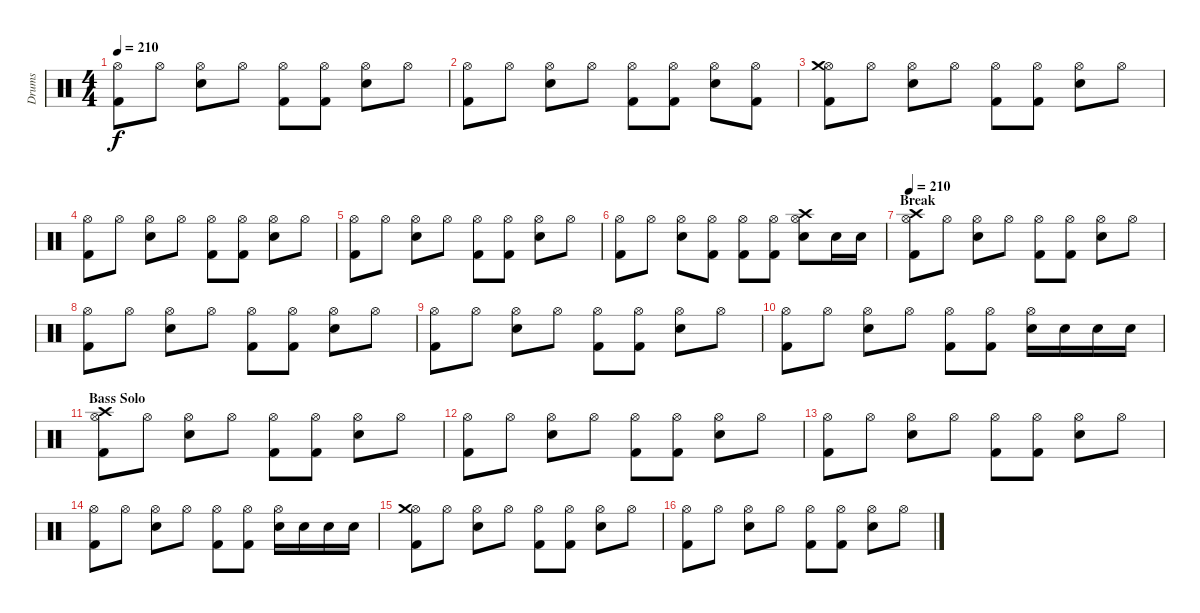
\track ("Drums" "Drums") {instrument percussion}
\staff {score}
\articulation defaults
\ts (4 4)
\tempo 210
\clef neutral
\ks c
("Hi-Hat (open)" "Kick (hit) 2").8{dy f} "Hi-Hat (open)".8 ("Hi-Hat (open)" "Electric Snare (hit)").8 "Hi-Hat (open)".8 ("Hi-Hat (open)" "Kick (hit) 2").8 ("Hi-Hat (open)" "Kick (hit) 2").8 ("Hi-Hat (open)" "Electric Snare (hit)").8 "Hi-Hat (open)".8 |
("Hi-Hat (open)" "Kick (hit) 2").8 "Hi-Hat (open)".8 ("Hi-Hat (open)" "Electric Snare (hit)").8 "Hi-Hat (open)".8 ("Hi-Hat (open)" "Kick (hit) 2").8 ("Hi-Hat (open)" "Kick (hit) 2").8 ("Hi-Hat (open)" "Electric Snare (hit)").8 ("Hi-Hat (open)" "Kick (hit) 2").8 |
("Hi-Hat (open)" "Crash medium (hit)" "Kick (hit) 2").8 "Hi-Hat (open)".8 ("Hi-Hat (open)" "Electric Snare (hit)").8 "Hi-Hat (open)".8 ("Hi-Hat (open)" "Kick (hit) 2").8 ("Hi-Hat (open)" "Kick (hit) 2").8 ("Hi-Hat (open)" "Electric Snare (hit)").8 "Hi-Hat (open)".8 |
("Hi-Hat (open)" "Kick (hit) 2").8 "Hi-Hat (open)".8 ("Hi-Hat (open)" "Electric Snare (hit)").8 "Hi-Hat (open)".8 ("Hi-Hat (open)" "Kick (hit) 2").8 ("Hi-Hat (open)" "Kick (hit) 2").8 ("Hi-Hat (open)" "Electric Snare (hit)").8 "Hi-Hat (open)".8 |
("Hi-Hat (open)" "Kick (hit) 2").8 "Hi-Hat (open)".8 ("Hi-Hat (open)" "Electric Snare (hit)").8 "Hi-Hat (open)".8 ("Hi-Hat (open)" "Kick (hit) 2").8 ("Hi-Hat (open)" "Kick (hit) 2").8 ("Hi-Hat (open)" "Electric Snare (hit)").8 "Hi-Hat (open)".8 |
("Hi-Hat (open)" "Kick (hit) 2").8 "Hi-Hat (open)".8 ("Hi-Hat (open)" "Electric Snare (hit)").8 ("Hi-Hat (open)" "Kick (hit) 2").8 ("Hi-Hat (open)" "Kick (hit) 2").8 ("Hi-Hat (open)" "Kick (hit) 2").8 ("Hi-Hat (open)" "Crash high (hit)" "Electric Snare (hit)").8 "Electric Snare (hit)".16 "Electric Snare (hit)".16 |
\section ("" "Break")
\tempo 210
("Hi-Hat (open)" "Crash high (hit)" "Kick (hit) 2").8 "Hi-Hat (open)".8 ("Hi-Hat (open)" "Electric Snare (hit)").8 "Hi-Hat (open)".8 ("Hi-Hat (open)" "Kick (hit) 2").8 ("Hi-Hat (open)" "Kick (hit) 2").8 ("Hi-Hat (open)" "Electric Snare (hit)").8 "Hi-Hat (open)".8 |
("Hi-Hat (open)" "Kick (hit) 2").8 "Hi-Hat (open)".8 ("Hi-Hat (open)" "Electric Snare (hit)").8 "Hi-Hat (open)".8 ("Hi-Hat (open)" "Kick (hit) 2").8 ("Hi-Hat (open)" "Kick (hit) 2").8 ("Hi-Hat (open)" "Electric Snare (hit)").8 "Hi-Hat (open)".8 |
("Hi-Hat (open)" "Kick (hit) 2").8 "Hi-Hat (open)".8 ("Hi-Hat (open)" "Electric Snare (hit)").8 "Hi-Hat (open)".8 ("Hi-Hat (open)" "Kick (hit) 2").8 ("Hi-Hat (open)" "Kick (hit) 2").8 ("Hi-Hat (open)" "Electric Snare (hit)").8 "Hi-Hat (open)".8 |
("Hi-Hat (open)" "Kick (hit) 2").8 "Hi-Hat (open)".8 ("Hi-Hat (open)" "Electric Snare (hit)").8 "Hi-Hat (open)".8 ("Hi-Hat (open)" "Kick (hit) 2").8 ("Hi-Hat (open)" "Kick (hit) 2").8 ("Hi-Hat (open)" "Electric Snare (hit)").16 "Electric Snare (hit)".16 "Electric Snare (hit)".16 "Electric Snare (hit)".16 |
\section ("" "Bass Solo")
("Hi-Hat (open)" "Crash high (hit)" "Kick (hit) 2").8 "Hi-Hat (open)".8 ("Hi-Hat (open)" "Electric Snare (hit)").8 "Hi-Hat (open)".8 ("Hi-Hat (open)" "Kick (hit) 2").8 ("Hi-Hat (open)" "Kick (hit) 2").8 ("Hi-Hat (open)" "Electric Snare (hit)").8 "Hi-Hat (open)".8 |
("Hi-Hat (open)" "Kick (hit) 2").8 "Hi-Hat (open)".8 ("Hi-Hat (open)" "Electric Snare (hit)").8 "Hi-Hat (open)".8 ("Hi-Hat (open)" "Kick (hit) 2").8 ("Hi-Hat (open)" "Kick (hit) 2").8 ("Hi-Hat (open)" "Electric Snare (hit)").8 "Hi-Hat (open)".8 |
("Hi-Hat (open)" "Kick (hit) 2").8 "Hi-Hat (open)".8 ("Hi-Hat (open)" "Electric Snare (hit)").8 "Hi-Hat (open)".8 ("Hi-Hat (open)" "Kick (hit) 2").8 ("Hi-Hat (open)" "Kick (hit) 2").8 ("Hi-Hat (open)" "Electric Snare (hit)").8 "Hi-Hat (open)".8 |
("Hi-Hat (open)" "Kick (hit) 2").8 "Hi-Hat (open)".8 ("Hi-Hat (open)" "Electric Snare (hit)").8 "Hi-Hat (open)".8 ("Hi-Hat (open)" "Kick (hit) 2").8 ("Hi-Hat (open)" "Kick (hit) 2").8 ("Hi-Hat (open)" "Electric Snare (hit)").16 "Electric Snare (hit)".16 "Electric Snare (hit)".16 "Electric Snare (hit)".16 |
("Hi-Hat (open)" "Crash medium (hit)" "Kick (hit) 2").8 "Hi-Hat (open)".8 ("Hi-Hat (open)" "Electric Snare (hit)").8 "Hi-Hat (open)".8 ("Hi-Hat (open)" "Kick (hit) 2").8 ("Hi-Hat (open)" "Kick (hit) 2").8 ("Hi-Hat (open)" "Electric Snare (hit)").8 "Hi-Hat (open)".8 |
("Hi-Hat (open)" "Kick (hit) 2").8 "Hi-Hat (open)".8 ("Hi-Hat (open)" "Electric Snare (hit)").8 "Hi-Hat (open)".8 ("Hi-Hat (open)" "Kick (hit) 2").8 ("Hi-Hat (open)" "Kick (hit) 2").8 ("Hi-Hat (open)" "Electric Snare (hit)").8 "Hi-Hat (open)".8
